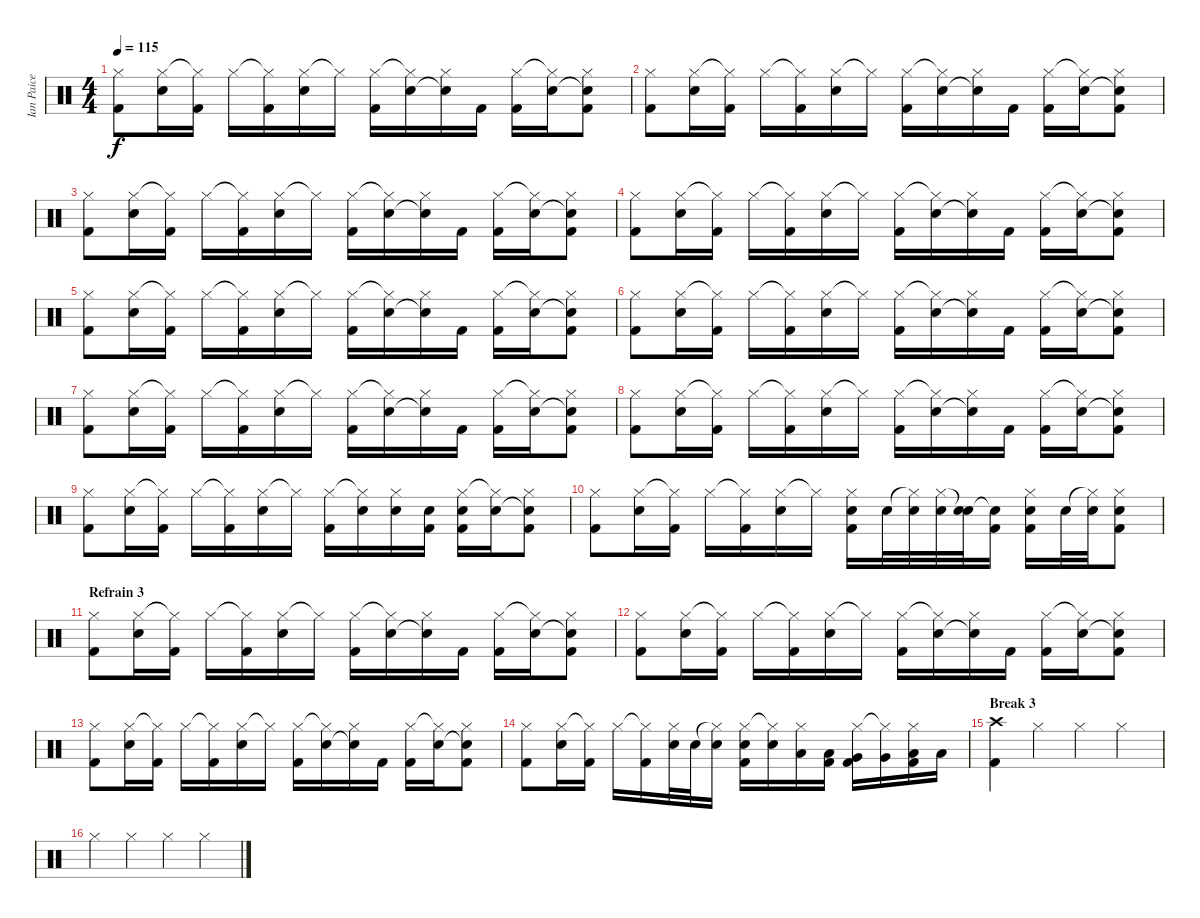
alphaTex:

\track ("Ian Paice" "Ian Paice") {instrument percussion}
\staff {score}
\articulation defaults
\ts (4 4)
\tempo 115
\clef neutral
\ks c
("Hi-Hat (closed)" "Kick (hit) 2").8{dy f} ("Hi-Hat (closed)" "Snare (hit) 2").16 ("Hi-Hat (closed)"{t} "Kick (hit) 2").16 "Hi-Hat (closed)".16 ("Hi-Hat (closed)"{t} "Kick (hit) 2").16 ("Hi-Hat (closed)" "Snare (hit) 2").16 "Hi-Hat (closed)"{t}.16 ("Hi-Hat (closed)" "Kick (hit) 2").16 ("Hi-Hat (closed)"{t} "Snare (hit) 2").16 ("Hi-Hat (closed)" "Snare (hit) 2"{t}).16 "Kick (hit) 2".16 ("Hi-Hat (closed)" "Kick (hit) 2").16 ("Hi-Hat (closed)"{t} "Snare (hit) 2").16 ("Hi-Hat (closed)" "Snare (hit) 2"{t} "Kick (hit) 2").8 |
("Hi-Hat (closed)" "Kick (hit) 2").8 ("Hi-Hat (closed)" "Snare (hit) 2").16 ("Hi-Hat (closed)"{t} "Kick (hit) 2").16 "Hi-Hat (closed)".16 ("Hi-Hat (closed)"{t} "Kick (hit) 2").16 ("Hi-Hat (closed)" "Snare (hit) 2").16 "Hi-Hat (closed)"{t}.16 ("Hi-Hat (closed)" "Kick (hit) 2").16 ("Hi-Hat (closed)"{t} "Snare (hit) 2").16 ("Hi-Hat (closed)" "Snare (hit) 2"{t}).16 "Kick (hit) 2".16 ("Hi-Hat (closed)" "Kick (hit) 2").16 ("Hi-Hat (closed)"{t} "Snare (hit) 2").16 ("Hi-Hat (closed)" "Snare (hit) 2"{t} "Kick (hit) 2").8 |
("Hi-Hat (closed)" "Kick (hit) 2").8 ("Hi-Hat (closed)" "Snare (hit) 2").16 ("Hi-Hat (closed)"{t} "Kick (hit) 2").16 "Hi-Hat (closed)".16 ("Hi-Hat (closed)"{t} "Kick (hit) 2").16 ("Hi-Hat (closed)" "Snare (hit) 2").16 "Hi-Hat (closed)"{t}.16 ("Hi-Hat (closed)" "Kick (hit) 2").16 ("Hi-Hat (closed)"{t} "Snare (hit) 2").16 ("Hi-Hat (closed)" "Snare (hit) 2"{t}).16 "Kick (hit) 2".16 ("Hi-Hat (closed)" "Kick (hit) 2").16 ("Hi-Hat (closed)"{t} "Snare (hit) 2").16 ("Hi-Hat (closed)" "Snare (hit) 2"{t} "Kick (hit) 2").8 |
("Hi-Hat (closed)" "Kick (hit) 2").8 ("Hi-Hat (closed)" "Snare (hit) 2").16 ("Hi-Hat (closed)"{t} "Kick (hit) 2").16 "Hi-Hat (closed)".16 ("Hi-Hat (closed)"{t} "Kick (hit) 2").16 ("Hi-Hat (closed)" "Snare (hit) 2").16 "Hi-Hat (closed)"{t}.16 ("Hi-Hat (closed)" "Kick (hit) 2").16 ("Hi-Hat (closed)"{t} "Snare (hit) 2").16 ("Hi-Hat (closed)" "Snare (hit) 2"{t}).16 "Kick (hit) 2".16 ("Hi-Hat (closed)" "Kick (hit) 2").16 ("Hi-Hat (closed)"{t} "Snare (hit) 2").16 ("Hi-Hat (closed)" "Snare (hit) 2"{t} "Kick (hit) 2").8 |
("Hi-Hat (closed)" "Kick (hit) 2").8 ("Hi-Hat (closed)" "Snare (hit) 2").16 ("Hi-Hat (closed)"{t} "Kick (hit) 2").16 "Hi-Hat (closed)".16 ("Hi-Hat (closed)"{t} "Kick (hit) 2").16 ("Hi-Hat (closed)" "Snare (hit) 2").16 "Hi-Hat (closed)"{t}.16 ("Hi-Hat (closed)" "Kick (hit) 2").16 ("Hi-Hat (closed)"{t} "Snare (hit) 2").16 ("Hi-Hat (closed)" "Snare (hit) 2"{t}).16 "Kick (hit) 2".16 ("Hi-Hat (closed)" "Kick (hit) 2").16 ("Hi-Hat (closed)"{t} "Snare (hit) 2").16 ("Hi-Hat (closed)" "Snare (hit) 2"{t} "Kick (hit) 2").8 |
("Hi-Hat (closed)" "Kick (hit) 2").8 ("Hi-Hat (closed)" "Snare (hit) 2").16 ("Hi-Hat (closed)"{t} "Kick (hit) 2").16 "Hi-Hat (closed)".16 ("Hi-Hat (closed)"{t} "Kick (hit) 2").16 ("Hi-Hat (closed)" "Snare (hit) 2").16 "Hi-Hat (closed)"{t}.16 ("Hi-Hat (closed)" "Kick (hit) 2").16 ("Hi-Hat (closed)"{t} "Snare (hit) 2").16 ("Hi-Hat (closed)" "Snare (hit) 2"{t}).16 "Kick (hit) 2".16 ("Hi-Hat (closed)" "Kick (hit) 2").16 ("Hi-Hat (closed)"{t} "Snare (hit) 2").16 ("Hi-Hat (closed)" "Snare (hit) 2"{t} "Kick (hit) 2").8 |
("Hi-Hat (closed)" "Kick (hit) 2").8 ("Hi-Hat (closed)" "Snare (hit) 2").16 ("Hi-Hat (closed)"{t} "Kick (hit) 2").16 "Hi-Hat (closed)".16 ("Hi-Hat (closed)"{t} "Kick (hit) 2").16 ("Hi-Hat (closed)" "Snare (hit) 2").16 "Hi-Hat (closed)"{t}.16 ("Hi-Hat (closed)" "Kick (hit) 2").16 ("Hi-Hat (closed)"{t} "Snare (hit) 2").16 ("Hi-Hat (closed)" "Snare (hit) 2"{t}).16 "Kick (hit) 2".16 ("Hi-Hat (closed)" "Kick (hit) 2").16 ("Hi-Hat (closed)"{t} "Snare (hit) 2").16 ("Hi-Hat (closed)" "Snare (hit) 2"{t} "Kick (hit) 2").8 |
("Hi-Hat (closed)" "Kick (hit) 2").8 ("Hi-Hat (closed)" "Snare (hit) 2").16 ("Hi-Hat (closed)"{t} "Kick (hit) 2").16 "Hi-Hat (closed)".16 ("Hi-Hat (closed)"{t} "Kick (hit) 2").16 ("Hi-Hat (closed)" "Snare (hit) 2").16 "Hi-Hat (closed)"{t}.16 ("Hi-Hat (closed)" "Kick (hit) 2").16 ("Hi-Hat (closed)"{t} "Snare (hit) 2").16 ("Hi-Hat (closed)" "Snare (hit) 2"{t}).16 "Kick (hit) 2".16 ("Hi-Hat (closed)" "Kick (hit) 2").16 ("Hi-Hat (closed)"{t} "Snare (hit) 2").16 ("Hi-Hat (closed)" "Snare (hit) 2"{t} "Kick (hit) 2").8 |
("Hi-Hat (closed)" "Kick (hit) 2").8 ("Hi-Hat (closed)" "Snare (hit) 2").16 ("Hi-Hat (closed)"{t} "Kick (hit) 2").16 "Hi-Hat (closed)".16 ("Hi-Hat (closed)"{t} "Kick (hit) 2").16 ("Hi-Hat (closed)" "Snare (hit) 2").16 "Hi-Hat (closed)"{t}.16 ("Hi-Hat (closed)" "Kick (hit) 2").16 ("Hi-Hat (closed)"{t} "Snare (hit) 2").16 ("Hi-Hat (closed)" "Snare (hit) 2").16 ("Snare (hit) 2" "Kick (hit) 2").16 ("Hi-Hat (closed)" "Snare (hit) 2" "Kick (hit) 2").16 ("Hi-Hat (closed)"{t} "Snare (hit) 2").16 ("Hi-Hat (closed)" "Snare (hit) 2"{t} "Kick (hit) 2").8 |
("Hi-Hat (closed)" "Kick (hit) 2").8 ("Hi-Hat (closed)" "Snare (hit) 2").16 ("Hi-Hat (closed)"{t} "Kick (hit) 2").16 "Hi-Hat (closed)".16 ("Hi-Hat (closed)"{t} "Kick (hit) 2").16 ("Hi-Hat (closed)" "Snare (hit) 2").16 "Hi-Hat (closed)"{t}.16 ("Hi-Hat (closed)" "Snare (hit) 2" "Kick (hit) 2").16 "Snare (hit) 2".32 ("Hi-Hat (closed)"{t} "Snare (hit) 2").32 ("Hi-Hat (closed)" "Snare (hit) 2").32 ("Snare (hit)"{t} "Snare (hit) 2").32 ("Snare (hit)"{t} "Kick (hit) 2").16 ("Hi-Hat (closed)" "Snare (hit) 2" "Kick (hit) 2").16 "Snare (hit) 2".32 ("Hi-Hat (closed)"{t} "Snare (hit) 2").32 ("Hi-Hat (closed)" "Snare (hit) 2" "Kick (hit) 2").8 |
\section ("" "Refrain 3")
("Hi-Hat (closed)" "Kick (hit) 2").8 ("Hi-Hat (closed)" "Snare (hit) 2").16 ("Hi-Hat (closed)"{t} "Kick (hit) 2").16 "Hi-Hat (closed)".16 ("Hi-Hat (closed)"{t} "Kick (hit) 2").16 ("Hi-Hat (closed)" "Snare (hit) 2").16 "Hi-Hat (closed)"{t}.16 ("Hi-Hat (closed)" "Kick (hit) 2").16 ("Hi-Hat (closed)"{t} "Snare (hit) 2").16 ("Hi-Hat (closed)" "Snare (hit) 2"{t}).16 "Kick (hit) 2".16 ("Hi-Hat (closed)" "Kick (hit) 2").16 ("Hi-Hat (closed)"{t} "Snare (hit) 2").16 ("Hi-Hat (closed)" "Snare (hit) 2"{t} "Kick (hit) 2").8 |
("Hi-Hat (closed)" "Kick (hit) 2").8 ("Hi-Hat (closed)" "Snare (hit) 2").16 ("Hi-Hat (closed)"{t} "Kick (hit) 2").16 "Hi-Hat (closed)".16 ("Hi-Hat (closed)"{t} "Kick (hit) 2").16 ("Hi-Hat (closed)" "Snare (hit) 2").16 "Hi-Hat (closed)"{t}.16 ("Hi-Hat (closed)" "Kick (hit) 2").16 ("Hi-Hat (closed)"{t} "Snare (hit) 2").16 ("Hi-Hat (closed)" "Snare (hit) 2"{t}).16 "Kick (hit) 2".16 ("Hi-Hat (closed)" "Kick (hit) 2").16 ("Hi-Hat (closed)"{t} "Snare (hit) 2").16 ("Hi-Hat (closed)" "Snare (hit) 2"{t} "Kick (hit) 2").8 |
("Hi-Hat (closed)" "Kick (hit) 2").8 ("Hi-Hat (closed)" "Snare (hit) 2").16 ("Hi-Hat (closed)"{t} "Kick (hit) 2").16 "Hi-Hat (closed)".16 ("Hi-Hat (closed)"{t} "Kick (hit) 2").16 ("Hi-Hat (closed)" "Snare (hit) 2").16 "Hi-Hat (closed)"{t}.16 ("Hi-Hat (closed)" "Kick (hit) 2").16 ("Hi-Hat (closed)"{t} "Snare (hit) 2").16 ("Hi-Hat (closed)" "Snare (hit) 2"{t}).16 "Kick (hit) 2".16 ("Hi-Hat (closed)" "Kick (hit) 2").16 ("Hi-Hat (closed)"{t} "Snare (hit) 2").16 ("Hi-Hat (closed)" "Snare (hit) 2"{t} "Kick (hit) 2").8 |
("Hi-Hat (closed)" "Kick (hit) 2").8 ("Hi-Hat (closed)" "Snare (hit) 2").16 ("Hi-Hat (closed)"{t} "Kick (hit) 2").16 "Hi-Hat (closed)".16 ("Hi-Hat (closed)"{t} "Kick (hit) 2").16 ("Hi-Hat (closed)" "Snare (hit) 2").32 "Snare (hit) 2".32 ("Hi-Hat (closed)"{t} "Snare (hit) 2").16 ("Hi-Hat (closed)" "Snare (hit) 2" "Kick (hit) 2").16 ("Hi-Hat (closed)"{t} "Snare (hit) 2").16 ("Hi-Hat (closed)" "Low Tom (hit)").16 ("Low Tom (hit)" "Kick (hit) 2").16 ("Hi-Hat (closed)" "Very Low Tom (hit)" "Kick (hit) 2").16 ("Hi-Hat (closed)"{t} "Very Low Tom (hit)").16 ("Hi-Hat (closed)" "Low Floor Tom (hit)" "Kick (hit) 2").16 "Low Floor Tom (hit)".16 |
\section ("" "Break 3")
("Crash high (hit)" "Kick (hit) 2").4 "Hi-Hat (closed)".4 "Hi-Hat (closed)".4 "Hi-Hat (closed)".4 |
"Hi-Hat (closed)".4 "Hi-Hat (closed)".4 "Hi-Hat (closed)".4 "Hi-Hat (closed)".4
